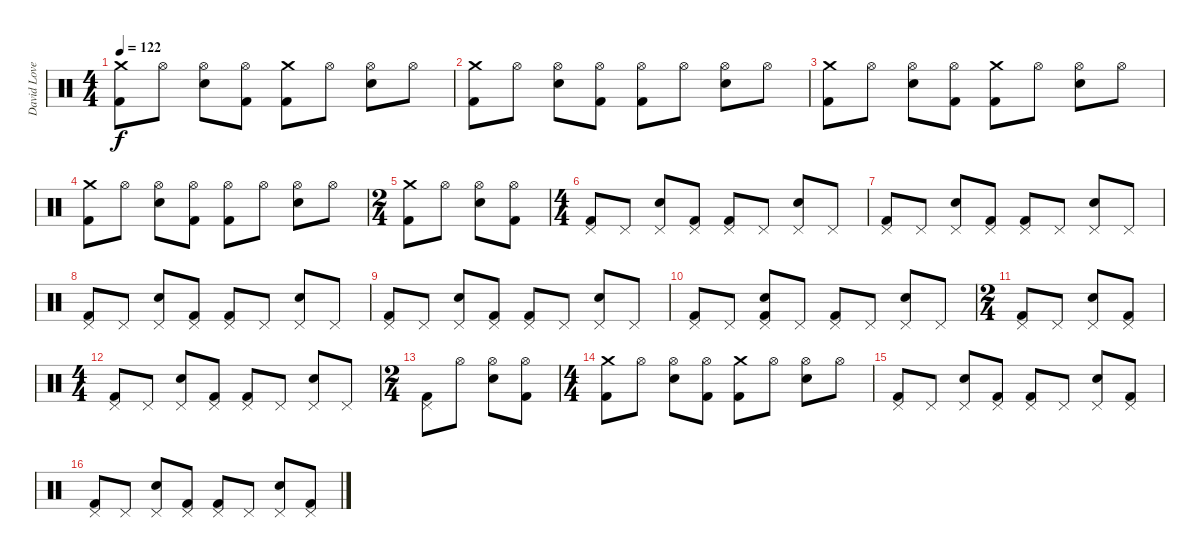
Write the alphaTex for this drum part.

\track ("David Lovering" "David Love") {instrument percussion}
\staff {score}
\articulation defaults
\ts (4 4)
\tempo 122
\clef neutral
\ks c
("Crash medium (hit)" "Kick (hit) 2").8{dy f} "Hi-Hat (open)".8 ("Hi-Hat (open)" "Electric Snare (hit)").8 ("Hi-Hat (open)" "Kick (hit) 2").8 ("Crash medium (hit)" "Kick (hit) 2").8 "Hi-Hat (open)".8 ("Hi-Hat (open)" "Electric Snare (hit)").8 "Hi-Hat (open)".8 |
("Crash medium (hit)" "Kick (hit) 2").8 "Hi-Hat (open)".8 ("Hi-Hat (open)" "Electric Snare (hit)").8 ("Hi-Hat (open)" "Kick (hit) 2").8 ("Hi-Hat (open)" "Kick (hit) 2").8 "Hi-Hat (open)".8 ("Hi-Hat (open)" "Electric Snare (hit)").8 "Hi-Hat (open)".8 |
("Crash medium (hit)" "Kick (hit) 2").8 "Hi-Hat (open)".8 ("Hi-Hat (open)" "Electric Snare (hit)").8 ("Hi-Hat (open)" "Kick (hit) 2").8 ("Crash medium (hit)" "Kick (hit) 2").8 "Hi-Hat (open)".8 ("Hi-Hat (open)" "Electric Snare (hit)").8 "Hi-Hat (open)".8 |
("Crash medium (hit)" "Kick (hit) 2").8 "Hi-Hat (open)".8 ("Hi-Hat (open)" "Electric Snare (hit)").8 ("Hi-Hat (open)" "Kick (hit) 2").8 ("Hi-Hat (open)" "Kick (hit) 2").8 "Hi-Hat (open)".8 ("Hi-Hat (open)" "Electric Snare (hit)").8 "Hi-Hat (open)".8 |
\ts (2 4)
("Crash medium (hit)" "Kick (hit) 2").8 "Hi-Hat (open)".8 ("Hi-Hat (open)" "Electric Snare (hit)").8 ("Hi-Hat (open)" "Kick (hit) 2").8 |
\ts (4 4)
("Pedal Hi-Hat (hit)" "Kick (hit) 2").8 "Pedal Hi-Hat (hit)".8 ("Pedal Hi-Hat (hit)" "Electric Snare (hit)").8 ("Pedal Hi-Hat (hit)" "Kick (hit) 2").8 ("Pedal Hi-Hat (hit)" "Kick (hit) 2").8 "Pedal Hi-Hat (hit)".8 ("Pedal Hi-Hat (hit)" "Electric Snare (hit)").8 "Pedal Hi-Hat (hit)".8 |
("Pedal Hi-Hat (hit)" "Kick (hit) 2").8 "Pedal Hi-Hat (hit)".8 ("Pedal Hi-Hat (hit)" "Electric Snare (hit)").8 ("Pedal Hi-Hat (hit)" "Kick (hit) 2").8 ("Pedal Hi-Hat (hit)" "Kick (hit) 2").8 "Pedal Hi-Hat (hit)".8 ("Pedal Hi-Hat (hit)" "Electric Snare (hit)").8 "Pedal Hi-Hat (hit)".8 |
("Pedal Hi-Hat (hit)" "Kick (hit) 2").8 "Pedal Hi-Hat (hit)".8 ("Pedal Hi-Hat (hit)" "Electric Snare (hit)").8 ("Pedal Hi-Hat (hit)" "Kick (hit) 2").8 ("Pedal Hi-Hat (hit)" "Kick (hit) 2").8 "Pedal Hi-Hat (hit)".8 ("Pedal Hi-Hat (hit)" "Electric Snare (hit)").8 "Pedal Hi-Hat (hit)".8 |
("Pedal Hi-Hat (hit)" "Kick (hit) 2").8 "Pedal Hi-Hat (hit)".8 ("Pedal Hi-Hat (hit)" "Electric Snare (hit)").8 ("Pedal Hi-Hat (hit)" "Kick (hit) 2").8 ("Pedal Hi-Hat (hit)" "Kick (hit) 2").8 "Pedal Hi-Hat (hit)".8 ("Pedal Hi-Hat (hit)" "Electric Snare (hit)").8 "Pedal Hi-Hat (hit)".8 |
("Pedal Hi-Hat (hit)" "Kick (hit) 2").8 "Pedal Hi-Hat (hit)".8 ("Pedal Hi-Hat (hit)" "Electric Snare (hit)" "Kick (hit) 2").8 "Pedal Hi-Hat (hit)".8 ("Pedal Hi-Hat (hit)" "Kick (hit) 2").8 "Pedal Hi-Hat (hit)".8 ("Pedal Hi-Hat (hit)" "Electric Snare (hit)").8 "Pedal Hi-Hat (hit)".8 |
\ts (2 4)
("Pedal Hi-Hat (hit)" "Kick (hit) 2").8 "Pedal Hi-Hat (hit)".8 ("Pedal Hi-Hat (hit)" "Electric Snare (hit)").8 ("Pedal Hi-Hat (hit)" "Kick (hit) 2").8 |
\ts (4 4)
("Pedal Hi-Hat (hit)" "Kick (hit) 2").8 "Pedal Hi-Hat (hit)".8 ("Pedal Hi-Hat (hit)" "Electric Snare (hit)").8 ("Pedal Hi-Hat (hit)" "Kick (hit) 2").8 ("Pedal Hi-Hat (hit)" "Kick (hit) 2").8 "Pedal Hi-Hat (hit)".8 ("Pedal Hi-Hat (hit)" "Electric Snare (hit)").8 "Pedal Hi-Hat (hit)".8 |
\ts (2 4)
("Pedal Hi-Hat (hit)" "Kick (hit) 2").8 "Hi-Hat (open)".8 ("Hi-Hat (open)" "Electric Snare (hit)").8 ("Hi-Hat (open)" "Kick (hit) 2").8 |
\ts (4 4)
("Crash medium (hit)" "Kick (hit) 2").8 "Hi-Hat (open)".8 ("Hi-Hat (open)" "Electric Snare (hit)").8 ("Hi-Hat (open)" "Kick (hit) 2").8 ("Crash medium (hit)" "Kick (hit) 2").8 "Hi-Hat (open)".8 ("Hi-Hat (open)" "Electric Snare (hit)").8 "Hi-Hat (open)".8 |
("Pedal Hi-Hat (hit)" "Kick (hit) 2").8 "Pedal Hi-Hat (hit)".8 ("Pedal Hi-Hat (hit)" "Electric Snare (hit)").8 ("Pedal Hi-Hat (hit)" "Kick (hit) 2").8 ("Pedal Hi-Hat (hit)" "Kick (hit) 2").8 "Pedal Hi-Hat (hit)".8 ("Pedal Hi-Hat (hit)" "Electric Snare (hit)").8 ("Pedal Hi-Hat (hit)" "Kick (hit) 2").8 |
("Pedal Hi-Hat (hit)" "Kick (hit) 2").8 "Pedal Hi-Hat (hit)".8 ("Pedal Hi-Hat (hit)" "Electric Snare (hit)").8 ("Pedal Hi-Hat (hit)" "Kick (hit) 2").8 ("Pedal Hi-Hat (hit)" "Kick (hit) 2").8 "Pedal Hi-Hat (hit)".8 ("Pedal Hi-Hat (hit)" "Electric Snare (hit)").8 ("Pedal Hi-Hat (hit)" "Kick (hit) 2").8
